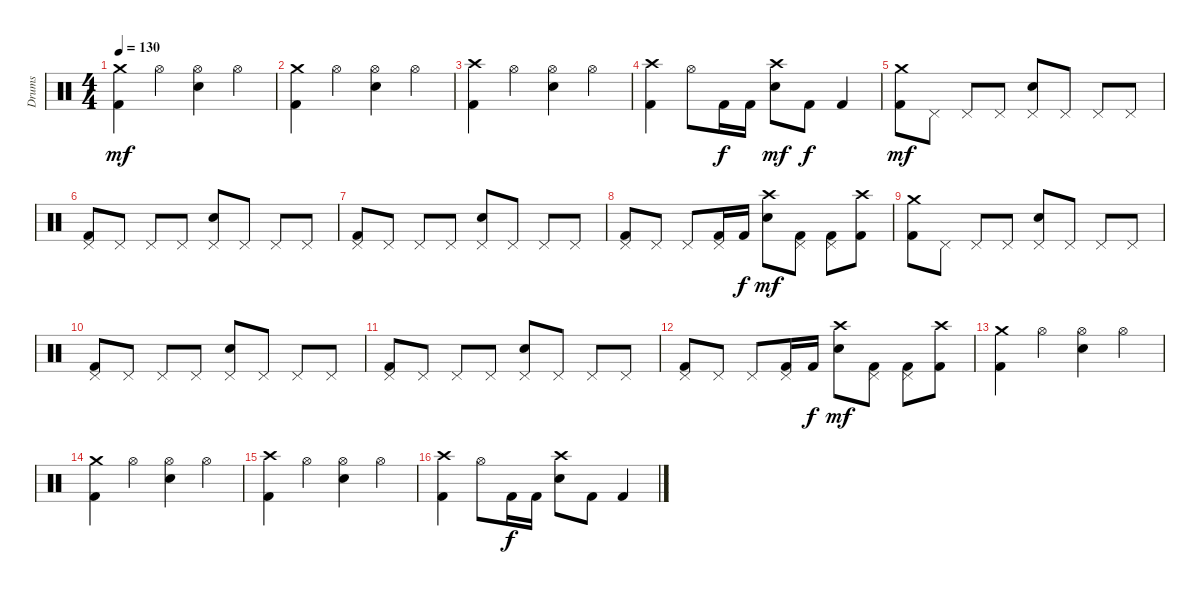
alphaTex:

\track ("Drums" "Drums") {instrument percussion}
\staff {score}
\articulation defaults
\ts (4 4)
\tempo 130
\clef neutral
\ks c
("Kick (hit) 2" "Crash medium (hit)").4{dy mf} "Hi-Hat (open)".4 ("Electric Snare (hit)" "Hi-Hat (open)").4 "Hi-Hat (open)".4 |
("Kick (hit) 2" "Crash medium (hit)").4 "Hi-Hat (open)".4 ("Electric Snare (hit)" "Hi-Hat (open)").4 "Hi-Hat (open)".4 |
("Kick (hit) 2" "Crash high (hit)").4 "Hi-Hat (open)".4 ("Electric Snare (hit)" "Hi-Hat (open)").4 "Hi-Hat (open)".4 |
("Kick (hit) 2" "Crash high (hit)").4 "Hi-Hat (open)".8 "Kick (hit) 2".16{dy f} "Kick (hit) 2".16 ("Electric Snare (hit)" "Crash high (hit)").8{dy mf} "Kick (hit) 2".8{dy f} "Kick (hit) 2".4 |
("Kick (hit) 2" "Crash medium (hit)").8{dy mf} "Pedal Hi-Hat (hit)".8 "Pedal Hi-Hat (hit)".8 "Pedal Hi-Hat (hit)".8 ("Electric Snare (hit)" "Pedal Hi-Hat (hit)").8 "Pedal Hi-Hat (hit)".8 "Pedal Hi-Hat (hit)".8 "Pedal Hi-Hat (hit)".8 |
("Kick (hit) 2" "Pedal Hi-Hat (hit)").8 "Pedal Hi-Hat (hit)".8 "Pedal Hi-Hat (hit)".8 "Pedal Hi-Hat (hit)".8 ("Electric Snare (hit)" "Pedal Hi-Hat (hit)").8 "Pedal Hi-Hat (hit)".8 "Pedal Hi-Hat (hit)".8 "Pedal Hi-Hat (hit)".8 |
("Kick (hit) 2" "Pedal Hi-Hat (hit)").8 "Pedal Hi-Hat (hit)".8 "Pedal Hi-Hat (hit)".8 "Pedal Hi-Hat (hit)".8 ("Electric Snare (hit)" "Pedal Hi-Hat (hit)").8 "Pedal Hi-Hat (hit)".8 "Pedal Hi-Hat (hit)".8 "Pedal Hi-Hat (hit)".8 |
("Kick (hit) 2" "Pedal Hi-Hat (hit)").8 "Pedal Hi-Hat (hit)".8 "Pedal Hi-Hat (hit)".8 ("Kick (hit) 2" "Pedal Hi-Hat (hit)").16 "Kick (hit) 2".16{dy f} ("Electric Snare (hit)" "Crash high (hit)").8{dy mf} ("Kick (hit) 2" "Pedal Hi-Hat (hit)").8 ("Kick (hit) 2" "Pedal Hi-Hat (hit)").8 ("Kick (hit) 2" "Crash high (hit)").8 |
("Kick (hit) 2" "Crash medium (hit)").8 "Pedal Hi-Hat (hit)".8 "Pedal Hi-Hat (hit)".8 "Pedal Hi-Hat (hit)".8 ("Electric Snare (hit)" "Pedal Hi-Hat (hit)").8 "Pedal Hi-Hat (hit)".8 "Pedal Hi-Hat (hit)".8 "Pedal Hi-Hat (hit)".8 |
("Kick (hit) 2" "Pedal Hi-Hat (hit)").8 "Pedal Hi-Hat (hit)".8 "Pedal Hi-Hat (hit)".8 "Pedal Hi-Hat (hit)".8 ("Electric Snare (hit)" "Pedal Hi-Hat (hit)").8 "Pedal Hi-Hat (hit)".8 "Pedal Hi-Hat (hit)".8 "Pedal Hi-Hat (hit)".8 |
("Kick (hit) 2" "Pedal Hi-Hat (hit)").8 "Pedal Hi-Hat (hit)".8 "Pedal Hi-Hat (hit)".8 "Pedal Hi-Hat (hit)".8 ("Electric Snare (hit)" "Pedal Hi-Hat (hit)").8 "Pedal Hi-Hat (hit)".8 "Pedal Hi-Hat (hit)".8 "Pedal Hi-Hat (hit)".8 |
("Kick (hit) 2" "Pedal Hi-Hat (hit)").8 "Pedal Hi-Hat (hit)".8 "Pedal Hi-Hat (hit)".8 ("Kick (hit) 2" "Pedal Hi-Hat (hit)").16 "Kick (hit) 2".16{dy f} ("Electric Snare (hit)" "Crash high (hit)").8{dy mf} ("Kick (hit) 2" "Pedal Hi-Hat (hit)").8 ("Kick (hit) 2" "Pedal Hi-Hat (hit)").8 ("Kick (hit) 2" "Crash high (hit)").8 |
("Kick (hit) 2" "Crash medium (hit)").4 "Hi-Hat (open)".4 ("Electric Snare (hit)" "Hi-Hat (open)").4 "Hi-Hat (open)".4 |
("Kick (hit) 2" "Crash medium (hit)").4 "Hi-Hat (open)".4 ("Electric Snare (hit)" "Hi-Hat (open)").4 "Hi-Hat (open)".4 |
("Kick (hit) 2" "Crash high (hit)").4 "Hi-Hat (open)".4 ("Electric Snare (hit)" "Hi-Hat (open)").4 "Hi-Hat (open)".4 |
("Kick (hit) 2" "Crash high (hit)").4 "Hi-Hat (open)".8 "Kick (hit) 2".16{dy f} "Kick (hit) 2".16 ("Electric Snare (hit)" "Crash high (hit)").8 "Kick (hit) 2".8 "Kick (hit) 2".4
